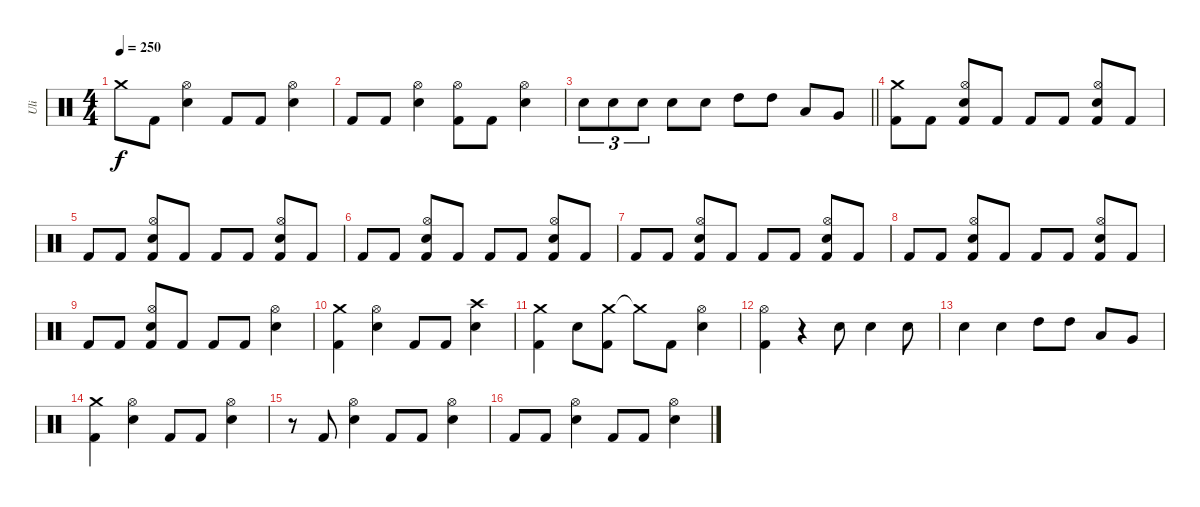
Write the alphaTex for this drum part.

\track ("Uli" "Uli") {instrument percussion}
\staff {score}
\articulation defaults
\ts (4 4)
\tempo 250
\clef neutral
\ks c "Crash medium (hit)"{t}.8{dy f} "Kick (hit) 2".8
("Hi-Hat (open)" "Snare (hit) 2").4 "Kick (hit) 2".8 "Kick (hit) 2".8 ("Hi-Hat (open)" "Snare (hit) 2").4 |
"Kick (hit) 2".8 "Kick (hit) 2".8 ("Hi-Hat (open)" "Snare (hit) 2").4 ("Hi-Hat (open)" "Kick (hit) 2").8 "Kick (hit) 2".8 ("Hi-Hat (open)" "Snare (hit) 2").4 |
\barLineRight lightlight "Snare (hit) 2".8{tu (3 2)} "Snare (hit) 2".8{tu (3 2)} "Snare (hit) 2".8{tu (3 2)} "Snare (hit) 2".8 "Snare (hit) 2".8 "High Tom (hit)".8 "High Tom (hit)".8 "Low Tom (hit)".8 "Very Low Tom (hit)".8
|
("Crash medium (hit)" "Kick (hit) 2").8 "Kick (hit) 2".8 ("Hi-Hat (open)" "Snare (hit) 2" "Kick (hit) 2").8 "Kick (hit) 2".8 "Kick (hit) 2".8 "Kick (hit) 2".8 ("Hi-Hat (open)" "Snare (hit) 2" "Kick (hit) 2").8 "Kick (hit) 2".8 |
"Kick (hit) 2".8 "Kick (hit) 2".8 ("Hi-Hat (open)" "Snare (hit) 2" "Kick (hit) 2").8 "Kick (hit) 2".8 "Kick (hit) 2".8 "Kick (hit) 2".8 ("Hi-Hat (open)" "Snare (hit) 2" "Kick (hit) 2").8 "Kick (hit) 2".8 |
"Kick (hit) 2".8 "Kick (hit) 2".8 ("Hi-Hat (open)" "Snare (hit) 2" "Kick (hit) 2").8 "Kick (hit) 2".8 "Kick (hit) 2".8 "Kick (hit) 2".8 ("Hi-Hat (open)" "Snare (hit) 2" "Kick (hit) 2").8 "Kick (hit) 2".8 |
"Kick (hit) 2".8 "Kick (hit) 2".8 ("Hi-Hat (open)" "Snare (hit) 2" "Kick (hit) 2").8 "Kick (hit) 2".8 "Kick (hit) 2".8 "Kick (hit) 2".8 ("Hi-Hat (open)" "Snare (hit) 2" "Kick (hit) 2").8 "Kick (hit) 2".8 |
"Kick (hit) 2".8 "Kick (hit) 2".8 ("Hi-Hat (open)" "Snare (hit) 2" "Kick (hit) 2").8 "Kick (hit) 2".8 "Kick (hit) 2".8 "Kick (hit) 2".8 ("Hi-Hat (open)" "Snare (hit) 2" "Kick (hit) 2").8 "Kick (hit) 2".8 |
"Kick (hit) 2".8 "Kick (hit) 2".8 ("Hi-Hat (open)" "Snare (hit) 2" "Kick (hit) 2").8 "Kick (hit) 2".8 "Kick (hit) 2".8 "Kick (hit) 2".8 ("Hi-Hat (open)" "Snare (hit) 2").4 |
("Crash medium (hit)" "Kick (hit) 2").4 ("Hi-Hat (open)" "Snare (hit) 2").4 "Kick (hit) 2".8 "Kick (hit) 2".8 ("Crash high (hit)" "Snare (hit) 2").4 |
("Crash medium (hit)" "Kick (hit) 2").4 "Snare (hit) 2".8 ("Crash medium (hit)" "Kick (hit) 2").8 "Crash medium (hit)"{t}.8 "Kick (hit) 2".8 ("Hi-Hat (open)" "Snare (hit) 2").4 |
("Hi-Hat (open)" "Kick (hit) 2").4 r.4 "Snare (hit) 2".8 "Snare (hit) 2".4 "Snare (hit) 2".8 |
"Snare (hit) 2".4 "Snare (hit) 2".4 "High Tom (hit)".8 "High Tom (hit)".8 "Low Tom (hit)".8 "Very Low Tom (hit)".8 |
("Crash medium (hit)" "Kick (hit) 2").4 ("Hi-Hat (open)" "Snare (hit) 2").4 "Kick (hit) 2".8 "Kick (hit) 2".8 ("Hi-Hat (open)" "Snare (hit) 2").4 |
r.8 "Kick (hit) 2".8 ("Hi-Hat (open)" "Snare (hit) 2").4 "Kick (hit) 2".8 "Kick (hit) 2".8 ("Hi-Hat (open)" "Snare (hit) 2").4 |
"Kick (hit) 2".8 "Kick (hit) 2".8 ("Hi-Hat (open)" "Snare (hit) 2").4 "Kick (hit) 2".8 "Kick (hit) 2".8 ("Hi-Hat (open)" "Snare (hit) 2").4
